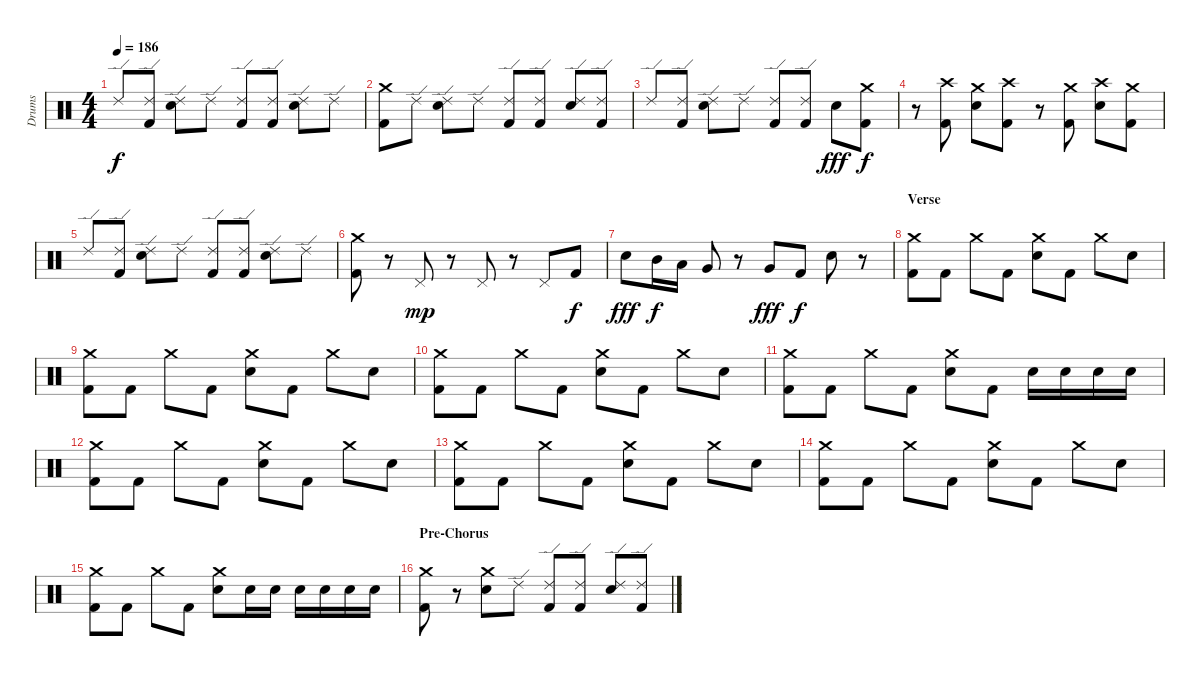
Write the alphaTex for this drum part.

\track ("Drums" "Drums") {instrument percussion}
\staff {score}
\articulation defaults
\ts (4 4)
\tempo 186
\clef neutral
\ks c "Ride (edge) 2".8{dy f}
("Ride (edge) 2" "Kick (hit) 2").8 ("Ride (edge) 2" "Electric Snare (hit)").8 "Ride (edge) 2".8 ("Ride (edge) 2" "Kick (hit) 2").8 ("Ride (edge) 2" "Kick (hit) 2").8 ("Ride (edge) 2" "Electric Snare (hit)").8 "Ride (edge) 2".8 |
("Crash medium (hit)" "Kick (hit) 2").8 "Ride (edge) 2".8 ("Ride (edge) 2" "Electric Snare (hit)").8 "Ride (edge) 2".8 ("Ride (edge) 2" "Kick (hit) 2").8 ("Ride (edge) 2" "Kick (hit) 2").8 ("Ride (edge) 2" "Electric Snare (hit)").8 ("Ride (edge) 2" "Kick (hit) 2").8 |
"Ride (edge) 2".8 ("Ride (edge) 2" "Kick (hit) 2").8 ("Ride (edge) 2" "Electric Snare (hit)").8 "Ride (edge) 2".8 ("Ride (edge) 2" "Kick (hit) 2").8 ("Ride (edge) 2" "Kick (hit) 2").8 "Electric Snare (hit)".8{dy fff} ("Crash medium (hit)" "Kick (hit) 2").8{dy f} |
r.8 ("Crash high (hit)" "Kick (hit) 2").8 ("Crash medium (hit)" "Electric Snare (hit)").8 ("Crash high (hit)" "Kick (hit) 2").8 r.8 ("Crash medium (hit)" "Kick (hit) 2").8 ("Crash high (hit)" "Electric Snare (hit)").8 ("Crash medium (hit)" "Kick (hit) 2").8 |
"Ride (edge) 2".8 ("Ride (edge) 2" "Kick (hit) 2").8 ("Ride (edge) 2" "Electric Snare (hit)").8 "Ride (edge) 2".8 ("Ride (edge) 2" "Kick (hit) 2").8 ("Ride (edge) 2" "Kick (hit) 2").8 ("Ride (edge) 2" "Electric Snare (hit)").8 "Ride (edge) 2".8 |
("Crash medium (hit)" "Kick (hit) 2").8 r.8 "Pedal Hi-Hat (hit)".8{dy mp} r.8 "Pedal Hi-Hat (hit)".8 r.8 "Pedal Hi-Hat (hit)".8 "Kick (hit) 2".8{dy f} |
"Electric Snare (hit)".8{dy fff} "Mid Tom (hit)".16{dy f} "Low Tom (hit)".16 "Very Low Tom (hit)".8 r.8 "Very Low Tom (hit)".8{dy fff} "Kick (hit) 2".8{dy f} "Electric Snare (hit)".8 r.8 |
\section ("" "Verse")
("Crash medium (hit)" "Kick (hit) 2").8 "Kick (hit) 2".8 "Crash medium (hit)".8 "Kick (hit) 2".8 ("Crash medium (hit)" "Electric Snare (hit)").8 "Kick (hit) 2".8 "Crash medium (hit)".8 "Electric Snare (hit)".8 |
("Crash medium (hit)" "Kick (hit) 2").8 "Kick (hit) 2".8 "Crash medium (hit)".8 "Kick (hit) 2".8 ("Crash medium (hit)" "Electric Snare (hit)").8 "Kick (hit) 2".8 "Crash medium (hit)".8 "Electric Snare (hit)".8 |
("Crash medium (hit)" "Kick (hit) 2").8 "Kick (hit) 2".8 "Crash medium (hit)".8 "Kick (hit) 2".8 ("Crash medium (hit)" "Electric Snare (hit)").8 "Kick (hit) 2".8 "Crash medium (hit)".8 "Electric Snare (hit)".8 |
("Crash medium (hit)" "Kick (hit) 2").8 "Kick (hit) 2".8 "Crash medium (hit)".8 "Kick (hit) 2".8 ("Crash medium (hit)" "Electric Snare (hit)").8 "Kick (hit) 2".8 "Electric Snare (hit)".16 "Electric Snare (hit)".16 "Electric Snare (hit)".16 "Electric Snare (hit)".16 |
("Crash medium (hit)" "Kick (hit) 2").8 "Kick (hit) 2".8 "Crash medium (hit)".8 "Kick (hit) 2".8 ("Crash medium (hit)" "Electric Snare (hit)").8 "Kick (hit) 2".8 "Crash medium (hit)".8 "Electric Snare (hit)".8 |
("Crash medium (hit)" "Kick (hit) 2").8 "Kick (hit) 2".8 "Crash medium (hit)".8 "Kick (hit) 2".8 ("Crash medium (hit)" "Electric Snare (hit)").8 "Kick (hit) 2".8 "Crash medium (hit)".8 "Electric Snare (hit)".8 |
("Crash medium (hit)" "Kick (hit) 2").8 "Kick (hit) 2".8 "Crash medium (hit)".8 "Kick (hit) 2".8 ("Crash medium (hit)" "Electric Snare (hit)").8 "Kick (hit) 2".8 "Crash medium (hit)".8 "Electric Snare (hit)".8 |
("Crash medium (hit)" "Kick (hit) 2").8 "Kick (hit) 2".8 "Crash medium (hit)".8 "Kick (hit) 2".8 ("Crash medium (hit)" "Electric Snare (hit)").8 "Electric Snare (hit)".16 "Electric Snare (hit)".16 "Electric Snare (hit)".16 "Electric Snare (hit)".16 "Electric Snare (hit)".16 "Electric Snare (hit)".16 |
\section ("" "Pre-Chorus")
("Crash medium (hit)" "Kick (hit) 2").8 r.8 ("Crash medium (hit)" "Electric Snare (hit)").8 "Ride (edge) 2".8 ("Ride (edge) 2" "Kick (hit) 2").8 ("Ride (edge) 2" "Kick (hit) 2").8 ("Ride (edge) 2" "Electric Snare (hit)").8 ("Ride (edge) 2" "Kick (hit) 2").8
